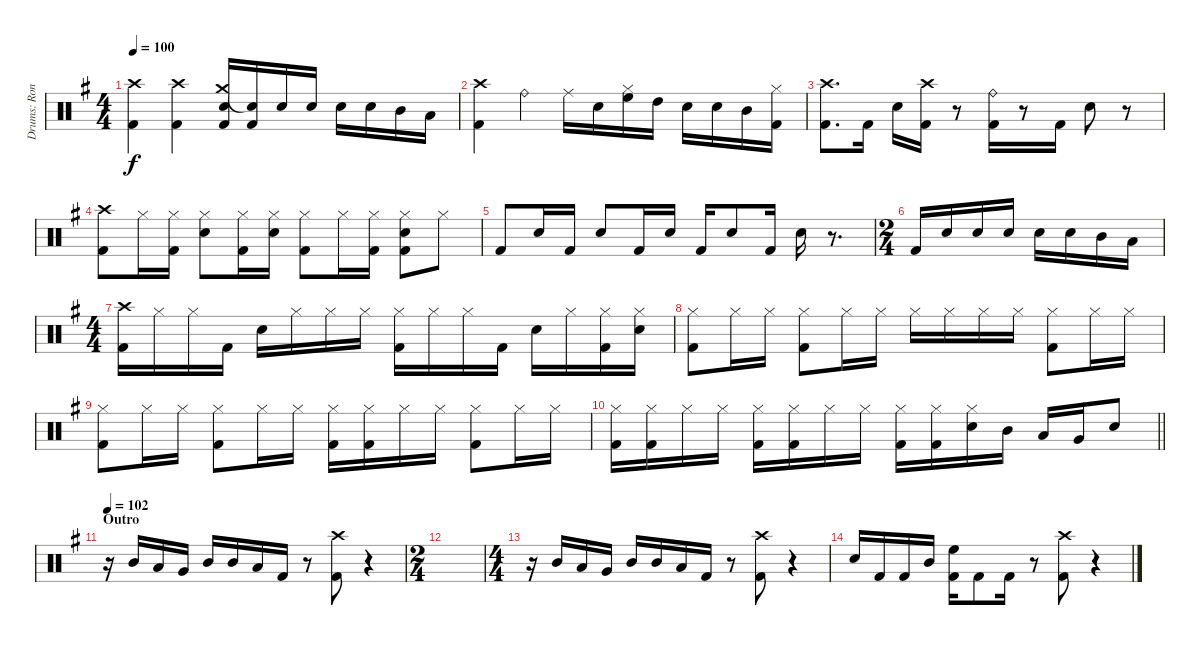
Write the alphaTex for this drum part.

\track ("Drums: Ronnie" "Drums: Ron") {instrument percussion}
\staff {score}
\articulation defaults
\ts (4 4)
\tempo 100
\clef neutral
\ks g
("Crash high (hit)" "Kick (hit) 2").4{dy f} ("Crash high (hit)" "Kick (hit) 2").4 ("Crash medium (hit)" "Electric Snare (hit)" "Kick (hit) 2").16 ("Snare (hit)"{t} "Kick (hit) 2").16 "Electric Snare (hit)".16 "Electric Snare (hit)".16 "Electric Snare (hit)".16 "Electric Snare (hit)".16 "Mid Tom (hit)".16 "Low Tom (hit)".16 |
("Crash high (hit)" "Kick (hit) 2").4 "Ride (bell)".4 "Ride (middle)".16 "Electric Snare (hit)".16 ("Hi-Hat (closed)" "High Floor Tom (hit)").16 "High Tom (hit)".16 "Electric Snare (hit)".16 "Electric Snare (hit)".16 "Mid Tom (hit)".16 ("Hi-Hat (closed)" "Kick (hit) 2").16 |
("Crash high (hit)" "Kick (hit) 2").8{d} "Kick (hit) 2".16 "Electric Snare (hit)".16 ("Crash high (hit)" "Kick (hit) 2").16 r.8 ("Ride (bell)" "Kick (hit) 2").16 r.8 "Kick (hit) 2".16 "Electric Snare (hit)".8 r.8 |
("Crash high (hit)" "Kick (hit) 2").8 "Hi-Hat (closed)".16 ("Hi-Hat (closed)" "Kick (hit) 2").16 ("Hi-Hat (closed)" "Electric Snare (hit)").8 ("Hi-Hat (closed)" "Kick (hit) 2").16 ("Hi-Hat (closed)" "Electric Snare (hit)").16 ("Hi-Hat (closed)" "Kick (hit) 2").8 "Hi-Hat (closed)".16 ("Hi-Hat (closed)" "Kick (hit) 2").16 ("Hi-Hat (closed)" "Electric Snare (hit)" "Kick (hit) 2").8 "Hi-Hat (closed)".8 |
"Kick (hit) 2".8 "Electric Snare (hit)".16 "Kick (hit) 2".16 "Electric Snare (hit)".8 "Kick (hit) 2".16 "Electric Snare (hit)".16 "Kick (hit) 2".16 "Electric Snare (hit)".8 "Kick (hit) 2".16 "Electric Snare (hit)".16 r.8{d} |
\ts (2 4)
"Kick (hit) 2".16 "Electric Snare (hit)".16 "Electric Snare (hit)".16 "Electric Snare (hit)".16 "Electric Snare (hit)".16 "Electric Snare (hit)".16 "Mid Tom (hit)".16 "Low Tom (hit)".16 |
\ts (4 4)
("Crash high (hit)" "Kick (hit) 2").16 "Hi-Hat (closed)".16 "Hi-Hat (closed)".16 "Kick (hit) 2".16 "Electric Snare (hit)".16 "Hi-Hat (closed)".16 "Hi-Hat (closed)".16 "Hi-Hat (closed)".16 ("Hi-Hat (closed)" "Kick (hit) 2").16 "Hi-Hat (closed)".16 "Hi-Hat (closed)".16 "Kick (hit) 2".16 "Electric Snare (hit)".16 "Hi-Hat (closed)".16 ("Hi-Hat (closed)" "Kick (hit) 2").16 ("Hi-Hat (closed)" "Electric Snare (hit)").16 |
("Hi-Hat (closed)" "Kick (hit) 2").8 "Hi-Hat (closed)".16 "Hi-Hat (closed)".16 ("Hi-Hat (closed)" "Kick (hit) 2").8 "Hi-Hat (closed)".16 "Hi-Hat (closed)".16 "Hi-Hat (closed)".16 "Hi-Hat (closed)".16 "Hi-Hat (closed)".16 "Hi-Hat (closed)".16 ("Hi-Hat (closed)" "Kick (hit) 2").8 "Hi-Hat (closed)".16 "Hi-Hat (closed)".16 |
("Hi-Hat (closed)" "Kick (hit) 2").8 "Hi-Hat (closed)".16 "Hi-Hat (closed)".16 ("Hi-Hat (closed)" "Kick (hit) 2").8 "Hi-Hat (closed)".16 "Hi-Hat (closed)".16 ("Hi-Hat (closed)" "Kick (hit) 2").16 ("Hi-Hat (closed)" "Kick (hit) 2").16 "Hi-Hat (closed)".16 "Hi-Hat (closed)".16 ("Hi-Hat (closed)" "Kick (hit) 2").8 "Hi-Hat (closed)".16 "Hi-Hat (closed)".16 |
\barLineRight lightlight
("Hi-Hat (closed)" "Kick (hit) 2").16 ("Hi-Hat (closed)" "Kick (hit) 2").16 "Hi-Hat (closed)".16 "Hi-Hat (closed)".16 ("Hi-Hat (closed)" "Kick (hit) 2").16 ("Hi-Hat (closed)" "Kick (hit) 2").16 "Hi-Hat (closed)".16 "Hi-Hat (closed)".16 ("Hi-Hat (closed)" "Kick (hit) 2").16 ("Hi-Hat (closed)" "Kick (hit) 2").16 ("Hi-Hat (closed)" "Electric Snare (hit)").16 "Mid Tom (hit)".16 "Low Tom (hit)".16 "Very Low Tom (hit)".16 "Electric Snare (hit)".8 |
\section ("" "Outro")
\tempo 102
r.16 "Mid Tom (hit)".16 "Low Tom (hit)".16 "Very Low Tom (hit)".16 "Mid Tom (hit)".16 "Mid Tom (hit)".16 "Low Tom (hit)".16 "Kick (hit) 2".16 r.8 ("Crash high (hit)" "Kick (hit) 2").8 r.4 |
\ts (2 4)
|
\ts (4 4)
r.16 "Mid Tom (hit)".16 "Low Tom (hit)".16 "Very Low Tom (hit)".16 "Mid Tom (hit)".16 "Mid Tom (hit)".16 "Low Tom (hit)".16 "Kick (hit) 2".16 r.8 ("Crash high (hit)" "Kick (hit) 2").8 r.4 |
"Electric Snare (hit)".16 "Kick (hit) 2".16 "Kick (hit) 2".16 "Mid Tom (hit)".16 ("High Floor Tom (hit)" "Kick (hit) 2").16 "Kick (hit) 2".8 "Kick (hit) 2".16 r.8 ("Crash high (hit)" "Kick (hit) 2").8 r.4
